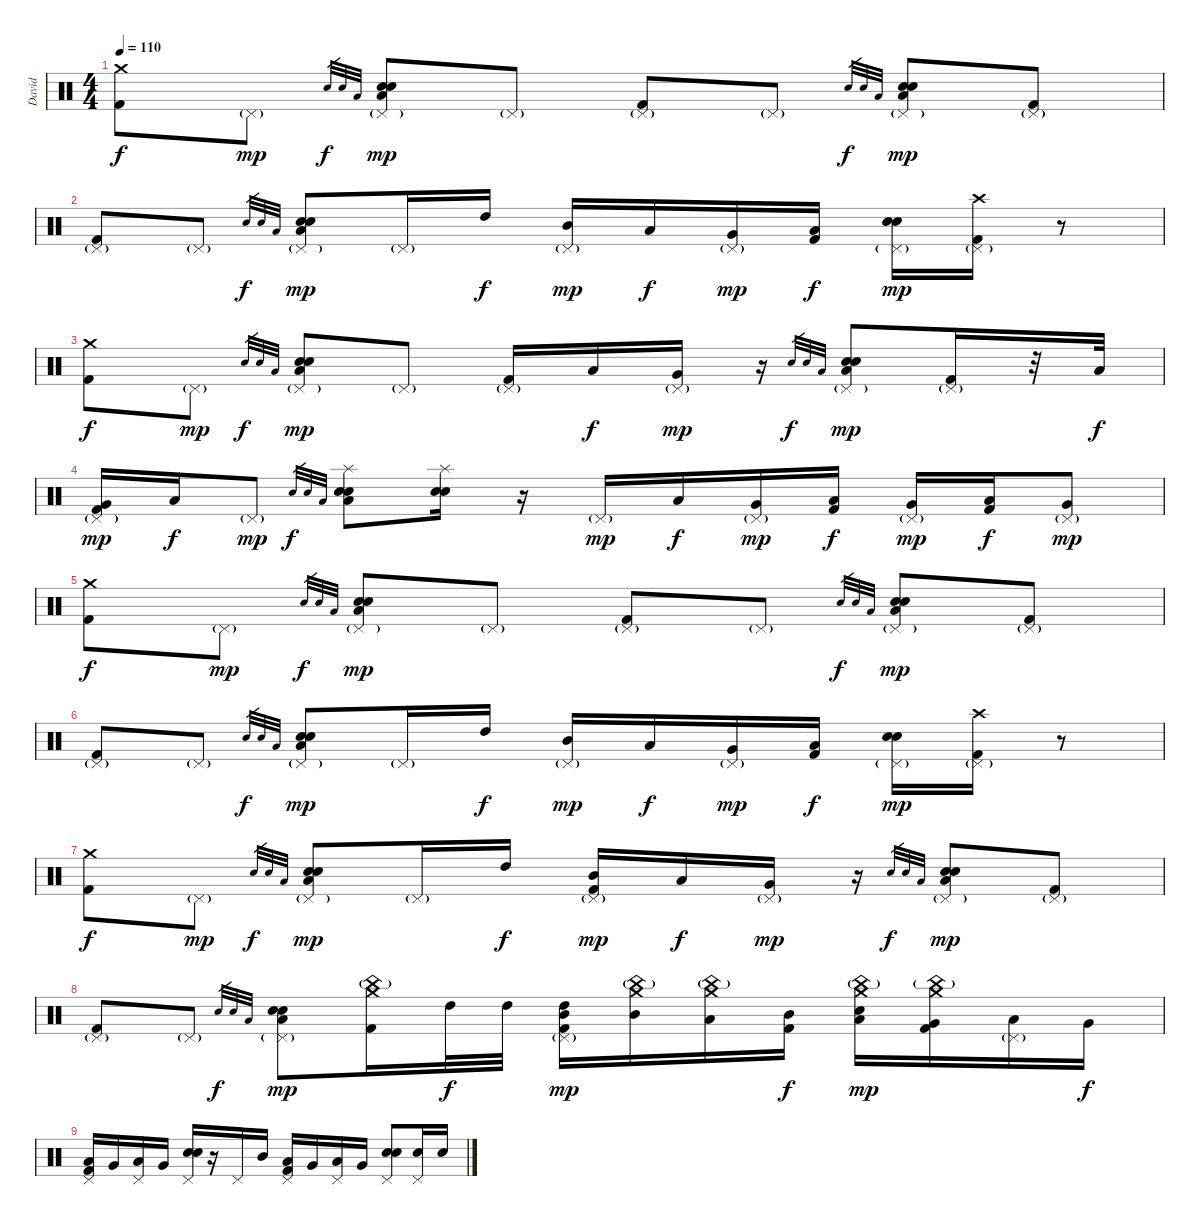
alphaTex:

\track ("David" "David") {instrument percussion}
\staff {score}
\articulation defaults
\ts (4 4)
\tempo 110
\clef neutral
\ks c
("Crash medium (hit)" "Kick (hit) 2").8{dy f} "Pedal Hi-Hat (hit)"{g}.8{dy mp} "Snare (hit) 2".32{gr dy f} "Snare (hit) 2".32{gr} "Low Floor Tom (hit)".32{gr} ("Pedal Hi-Hat (hit)"{g} "Snare (hit) 2" "Snare (hit) 2" "Low Floor Tom (hit)").8{dy mp} "Pedal Hi-Hat (hit)"{g}.8 ("Pedal Hi-Hat (hit)"{g} "Kick (hit) 2").8 "Pedal Hi-Hat (hit)"{g}.8 "Snare (hit) 2".32{gr dy f} "Snare (hit) 2".32{gr} "Low Floor Tom (hit)".32{gr} ("Pedal Hi-Hat (hit)"{g} "Snare (hit) 2" "Snare (hit) 2" "Low Floor Tom (hit)").8{dy mp} ("Pedal Hi-Hat (hit)"{g} "Kick (hit) 2").8 |
("Pedal Hi-Hat (hit)"{g} "Kick (hit) 2").8 "Pedal Hi-Hat (hit)"{g}.8 "Snare (hit) 2".32{gr dy f} "Snare (hit) 2".32{gr} "Low Floor Tom (hit)".32{gr} ("Pedal Hi-Hat (hit)"{g} "Snare (hit) 2" "Snare (hit) 2" "Low Floor Tom (hit)").8{dy mp} "Pedal Hi-Hat (hit)"{g}.16 "High Tom (hit)".16{dy f} ("Pedal Hi-Hat (hit)"{g} "Mid Tom (hit)").16{dy mp} "Low Tom (hit)".16{dy f} ("Pedal Hi-Hat (hit)"{g} "Very Low Tom (hit)").16{dy mp} ("Low Floor Tom (hit)" "Kick (hit) 2").16{dy f} ("Pedal Hi-Hat (hit)"{g} "Snare (hit) 2" "Snare (hit) 2").16{dy mp} ("Crash high (hit)" "Pedal Hi-Hat (hit)"{g} "Kick (hit) 2").16 r.8 |
("Crash medium (hit)" "Kick (hit) 2").8{dy f} "Pedal Hi-Hat (hit)"{g}.8{dy mp} "Snare (hit) 2".32{gr dy f} "Snare (hit) 2".32{gr} "Low Floor Tom (hit)".32{gr} ("Pedal Hi-Hat (hit)"{g} "Snare (hit) 2" "Snare (hit) 2" "Low Floor Tom (hit)").8{dy mp} "Pedal Hi-Hat (hit)"{g}.8 ("Pedal Hi-Hat (hit)"{g} "Kick (hit) 2").16 "Low Tom (hit)".16{dy f} ("Pedal Hi-Hat (hit)"{g} "Very Low Tom (hit)").16{dy mp} r.16 "Snare (hit) 2".32{gr dy f} "Snare (hit) 2".32{gr} "Low Floor Tom (hit)".32{gr} ("Pedal Hi-Hat (hit)"{g} "Snare (hit) 2" "Snare (hit) 2" "Low Floor Tom (hit)").8{dy mp} ("Pedal Hi-Hat (hit)"{g} "Kick (hit) 2").16 r.32 "Low Tom (hit)".32{dy f} |
("Pedal Hi-Hat (hit)"{g} "Very Low Tom (hit)" "Kick (hit) 2").16{dy mp} "Low Floor Tom (hit)".16{dy f} "Pedal Hi-Hat (hit)"{g}.8{dy mp} "Snare (hit) 2".32{gr dy f} "Snare (hit) 2".32{gr} "Low Floor Tom (hit)".32{gr} ("Splash (hit)" "Snare (hit) 2" "Snare (hit) 2" "Low Floor Tom (hit)").8 ("Splash (hit)" "Snare (hit) 2" "Snare (hit) 2").16 r.16 "Pedal Hi-Hat (hit)"{g}.16{dy mp} "Low Tom (hit)".16{dy f} ("Pedal Hi-Hat (hit)"{g} "Very Low Tom (hit)").16{dy mp} ("Low Floor Tom (hit)" "Kick (hit) 2").16{dy f} ("Pedal Hi-Hat (hit)"{g} "Very Low Tom (hit)").16{dy mp} ("Low Floor Tom (hit)" "Kick (hit) 2").16{dy f} ("Pedal Hi-Hat (hit)"{g} "Very Low Tom (hit)").8{dy mp} |
("Crash medium (hit)" "Kick (hit) 2").8{dy f} "Pedal Hi-Hat (hit)"{g}.8{dy mp} "Snare (hit) 2".32{gr dy f} "Snare (hit) 2".32{gr} "Low Floor Tom (hit)".32{gr} ("Pedal Hi-Hat (hit)"{g} "Snare (hit) 2" "Snare (hit) 2" "Low Floor Tom (hit)").8{dy mp} "Pedal Hi-Hat (hit)"{g}.8 ("Pedal Hi-Hat (hit)"{g} "Kick (hit) 2").8 "Pedal Hi-Hat (hit)"{g}.8 "Snare (hit) 2".32{gr dy f} "Snare (hit) 2".32{gr} "Low Floor Tom (hit)".32{gr} ("Pedal Hi-Hat (hit)"{g} "Snare (hit) 2" "Snare (hit) 2" "Low Floor Tom (hit)").8{dy mp} ("Pedal Hi-Hat (hit)"{g} "Kick (hit) 2").8 |
("Pedal Hi-Hat (hit)"{g} "Kick (hit) 2").8 "Pedal Hi-Hat (hit)"{g}.8 "Snare (hit) 2".32{gr dy f} "Snare (hit) 2".32{gr} "Low Floor Tom (hit)".32{gr} ("Pedal Hi-Hat (hit)"{g} "Snare (hit) 2" "Snare (hit) 2" "Low Floor Tom (hit)").8{dy mp} "Pedal Hi-Hat (hit)"{g}.16 "High Tom (hit)".16{dy f} ("Pedal Hi-Hat (hit)"{g} "Mid Tom (hit)").16{dy mp} "Low Tom (hit)".16{dy f} ("Pedal Hi-Hat (hit)"{g} "Very Low Tom (hit)").16{dy mp} ("Low Floor Tom (hit)" "Kick (hit) 2").16{dy f} ("Pedal Hi-Hat (hit)"{g} "Snare (hit) 2" "Snare (hit) 2").16{dy mp} ("Crash high (hit)" "Pedal Hi-Hat (hit)"{g} "Kick (hit) 2").16 r.8 |
("Crash medium (hit)" "Kick (hit) 2").8{dy f} "Pedal Hi-Hat (hit)"{g}.8{dy mp} "Snare (hit) 2".32{gr dy f} "Snare (hit) 2".32{gr} "Low Floor Tom (hit)".32{gr} ("Pedal Hi-Hat (hit)"{g} "Snare (hit) 2" "Snare (hit) 2" "Low Floor Tom (hit)").8{dy mp} "Pedal Hi-Hat (hit)"{g}.16 "High Tom (hit)".16{dy f} ("Pedal Hi-Hat (hit)"{g} "Mid Tom (hit)" "Kick (hit) 2").16{dy mp} "Low Tom (hit)".16{dy f} ("Pedal Hi-Hat (hit)"{g} "Very Low Tom (hit)").16{dy mp} r.16 "Snare (hit) 2".32{gr dy f} "Snare (hit) 2".32{gr} "Low Floor Tom (hit)".32{gr} ("Pedal Hi-Hat (hit)"{g} "Snare (hit) 2" "Snare (hit) 2" "Low Floor Tom (hit)").8{dy mp} ("Pedal Hi-Hat (hit)"{g} "Kick (hit) 2").8 |
("Pedal Hi-Hat (hit)"{g} "Kick (hit) 2").8 "Pedal Hi-Hat (hit)"{g}.8 "Snare (hit) 2".32{gr dy f} "Snare (hit) 2".32{gr} "Low Floor Tom (hit)".32{gr} ("Pedal Hi-Hat (hit)"{g} "Snare (hit) 2" "Snare (hit) 2" "Low Floor Tom (hit)").8{dy mp} ("Crash medium (hit)" "China (hit)"{g} "Kick (hit) 2").16 "High Tom (hit)".32{dy f} "High Tom (hit)".32 ("Pedal Hi-Hat (hit)"{g} "High Tom (hit)" "Mid Tom (hit)" "Kick (hit) 2").16{dy mp} ("Crash medium (hit)" "China (hit)"{g} "Mid Tom (hit)").16 ("Crash medium (hit)" "China (hit)"{g} "Low Tom (hit)").16 ("Mid Tom (hit)" "Kick (hit) 2").16{dy f} ("Crash medium (hit)" "China (hit)"{g} "Snare (hit) 2" "Low Tom (hit)").16{dy mp} ("Crash medium (hit)" "China (hit)"{g} "Very Low Tom (hit)" "Kick (hit) 2").16 ("Pedal Hi-Hat (hit)"{g} "Low Floor Tom (hit)").16 "Very Low Tom (hit)".16{dy f} |
("Pedal Hi-Hat (hit)" "Low Tom (hit)" "Kick (hit) 2").16 "Very Low Tom (hit)".16 ("Pedal Hi-Hat (hit)" "Low Floor Tom (hit)").16 "Very Low Tom (hit)".16 ("Pedal Hi-Hat (hit)" "Snare (hit) 2" "Snare (hit) 2").16 r.16 "Pedal Hi-Hat (hit)".16 "Mid Tom (hit)".16 ("Pedal Hi-Hat (hit)" "Low Tom (hit)" "Kick (hit) 2").16 "Very Low Tom (hit)".16 ("Pedal Hi-Hat (hit)" "Low Floor Tom (hit)").16 "Very Low Tom (hit)".16 ("Pedal Hi-Hat (hit)" "Snare (hit) 2" "Snare (hit) 2").8 ("Pedal Hi-Hat (hit)" "Snare (hit) 2").16 "Snare (hit) 2".16
